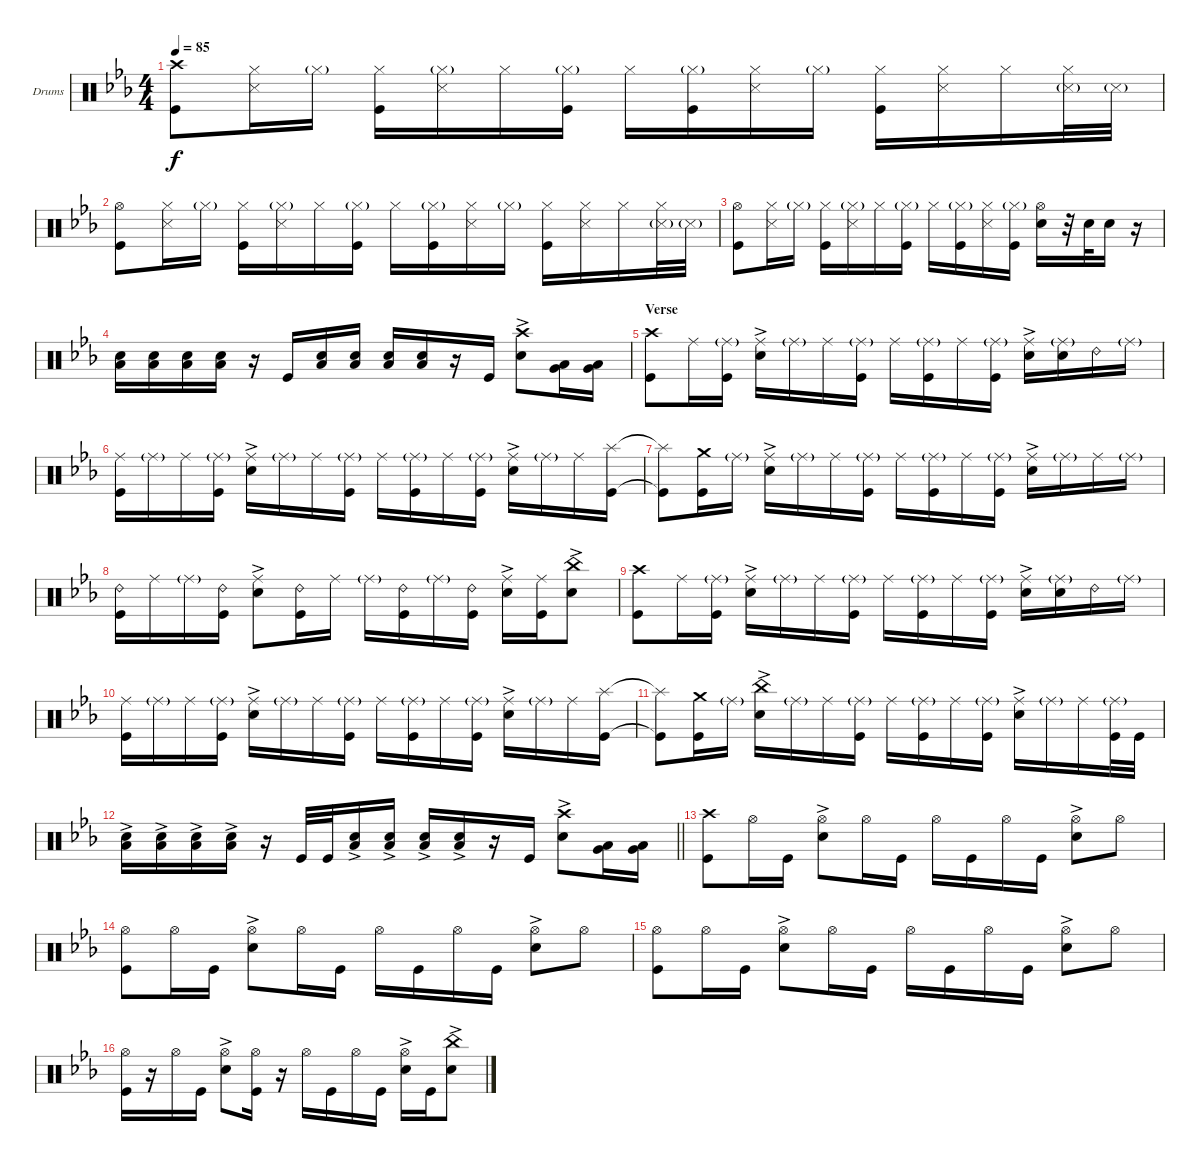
\bracketExtendMode groupsimilarinstruments
\firstSystemTrackNameOrientation horizontal
\otherSystemsTrackNameOrientation horizontal
\track ("Drumkit" "Drums") {instrument percussion}
\staff {score}
\articulation defaults
\ts (4 4)
\tempo 85
\clef neutral
\ks cminor
("Kick (hit)" "Crash high (hit)").8{dy f} ("Snare (side stick) 3" "Hi-Hat (closed)").16 "Hi-Hat (closed)"{g}.16 ("Kick (hit)" "Hi-Hat (closed)").16 ("Snare (side stick) 3" "Hi-Hat (closed)"{g}).16 "Hi-Hat (closed)".16 ("Kick (hit)" "Hi-Hat (closed)"{g}).16 "Hi-Hat (closed)".16 ("Kick (hit)" "Hi-Hat (closed)"{g}).16 ("Snare (side stick) 3" "Hi-Hat (closed)").16 "Hi-Hat (closed)"{g}.16 ("Kick (hit)" "Hi-Hat (closed)").16 ("Snare (side stick) 3" "Hi-Hat (closed)").16 "Hi-Hat (closed)".16 ("Hi-Hat (closed)" "Snare (side stick) 3"{g}).32 "Snare (side stick) 3"{g}.32 |
("Kick (hit)" "Hi-Hat (open)").8 ("Snare (side stick) 3" "Hi-Hat (closed)").16 "Hi-Hat (closed)"{g}.16 ("Kick (hit)" "Hi-Hat (closed)").16 ("Snare (side stick) 3" "Hi-Hat (closed)"{g}).16 "Hi-Hat (closed)".16 ("Kick (hit)" "Hi-Hat (closed)"{g}).16 "Hi-Hat (closed)".16 ("Kick (hit)" "Hi-Hat (closed)"{g}).16 ("Snare (side stick) 3" "Hi-Hat (closed)").16 "Hi-Hat (closed)"{g}.16 ("Kick (hit)" "Hi-Hat (closed)").16 ("Snare (side stick) 3" "Hi-Hat (closed)").16 "Hi-Hat (closed)".16 ("Hi-Hat (closed)" "Snare (side stick) 3"{g}).32 "Snare (side stick) 3"{g}.32 |
("Kick (hit)" "Hi-Hat (open)").8 ("Snare (side stick) 3" "Hi-Hat (closed)").16 "Hi-Hat (closed)"{g}.16 ("Kick (hit)" "Hi-Hat (closed)").16 ("Snare (side stick) 3" "Hi-Hat (closed)"{g}).16 "Hi-Hat (closed)".16 ("Kick (hit)" "Hi-Hat (closed)"{g}).16 "Hi-Hat (closed)".16 ("Kick (hit)" "Hi-Hat (closed)"{g}).16 ("Snare (side stick) 3" "Hi-Hat (closed)").16 ("Hi-Hat (closed)"{g} "Kick (hit)").16 ("Snare (hit) 2" "Hi-Hat (open)").16 r.32 "Snare (hit) 2".32 "Snare (hit) 2".16 r.16 |
("Snare (hit) 2" "Low Tom (hit)").16 ("Snare (hit) 2" "Low Tom (hit)").16 ("Snare (hit) 2" "Low Tom (hit)").16 ("Snare (hit) 2" "Low Tom (hit)").16 r.16 "Kick (hit)".16 ("Low Tom (hit)" "Snare (hit) 2").16 ("Low Tom (hit)" "Snare (hit) 2").16 ("Low Tom (hit)" "Snare (hit) 2").16 ("Low Tom (hit)" "Snare (hit) 2").16 r.16 "Kick (hit)".16 ("Snare (hit) 2"{ac} "Crash high (hit)").8 ("Low Tom (hit)" "Very Low Tom (hit)").16 ("Very Low Tom (hit)" "Low Tom (hit)").16 |
\section ("" "Verse")
("Kick (hit)" "Crash high (hit)").8 "Ride (middle)".16 ("Kick (hit)" "Ride (middle)"{g}).16 ("Snare (hit) 2"{ac} "Ride (middle)").16 "Ride (middle)"{g}.16 "Ride (middle)".16 ("Kick (hit)" "Ride (middle)"{g}).16 "Ride (middle)".16 ("Kick (hit)" "Ride (middle)"{g}).16 "Ride (middle)".16 ("Kick (hit)" "Ride (middle)"{g}).16 ("Snare (hit) 2"{ac} "Ride (middle)").16 ("Snare (hit) 2" "Ride (middle)"{g}).16 "Ride (bell) 2".16 "Ride (middle)"{g}.16 |
("Kick (hit)" "Ride (middle)").16 "Ride (middle)"{g}.16 "Ride (middle)".16 ("Kick (hit)" "Ride (middle)"{g}).16 ("Snare (hit) 2"{ac} "Ride (middle)").16 "Ride (middle)"{g}.16 "Ride (middle)".16 ("Kick (hit)" "Ride (middle)"{g}).16 "Ride (middle)".16 ("Kick (hit)" "Ride (middle)"{g}).16 "Ride (middle)".16 ("Kick (hit)" "Ride (middle)"{g}).16 ("Snare (hit) 2"{ac} "Ride (middle)").16 "Ride (middle)"{g}.16 "Ride (middle)".16 ("Kick (hit)" "Splash (hit)").16 |
("Kick (hit)"{t} "Splash (hit)"{t}).8 ("Kick (hit)" "Crash medium (hit)").16 "Ride (middle)"{g}.16 ("Snare (hit) 2"{ac} "Ride (middle)").16 "Ride (middle)"{g}.16 "Ride (middle)".16 ("Kick (hit)" "Ride (middle)"{g}).16 "Ride (middle)".16 ("Kick (hit)" "Ride (middle)"{g}).16 "Ride (middle)".16 ("Kick (hit)" "Ride (middle)"{g}).16 ("Snare (hit) 2"{ac} "Ride (middle)").16 "Ride (middle)"{g}.16 "Ride (middle)".16 "Ride (middle)"{g}.16 |
("Kick (hit)" "Ride (bell) 2").16 "Ride (middle)".16 "Ride (middle)"{g}.16 ("Kick (hit)" "Ride (bell) 2").16 ("Snare (hit) 2"{ac} "Ride (middle)").8 ("Kick (hit)" "Ride (bell) 2").16 "Ride (middle)".16 "Ride (middle)"{g}.16 ("Kick (hit)" "Ride (bell) 2").16 "Ride (middle)"{g}.16 ("Kick (hit)" "Ride (bell) 2").16 ("Snare (hit) 2"{ac} "Ride (middle)").16 ("Kick (hit)" "Ride (middle)").16 ("Snare (hit) 2"{ac} "China (hit)").8 |
("Kick (hit)" "Crash high (hit)").8 "Ride (middle)".16 ("Kick (hit)" "Ride (middle)"{g}).16 ("Snare (hit) 2"{ac} "Ride (middle)").16 "Ride (middle)"{g}.16 "Ride (middle)".16 ("Kick (hit)" "Ride (middle)"{g}).16 "Ride (middle)".16 ("Kick (hit)" "Ride (middle)"{g}).16 "Ride (middle)".16 ("Kick (hit)" "Ride (middle)"{g}).16 ("Snare (hit) 2"{ac} "Ride (middle)").16 ("Snare (hit) 2" "Ride (middle)"{g}).16 "Ride (bell) 2".16 "Ride (middle)"{g}.16 |
("Kick (hit)" "Ride (middle)").16 "Ride (middle)"{g}.16 "Ride (middle)".16 ("Kick (hit)" "Ride (middle)"{g}).16 ("Snare (hit) 2"{ac} "Ride (middle)").16 "Ride (middle)"{g}.16 "Ride (middle)".16 ("Kick (hit)" "Ride (middle)"{g}).16 "Ride (middle)".16 ("Kick (hit)" "Ride (middle)"{g}).16 "Ride (middle)".16 ("Kick (hit)" "Ride (middle)"{g}).16 ("Snare (hit) 2"{ac} "Ride (middle)").16 "Ride (middle)"{g}.16 "Ride (middle)".16 ("Kick (hit)" "Splash (hit)").16 |
("Kick (hit)"{t} "Splash (hit)"{t}).8 ("Kick (hit)" "Crash medium (hit)").16 "Ride (middle)"{g}.16 ("Snare (hit) 2"{ac} "China (hit)").16 "Ride (middle)"{g}.16 "Ride (middle)".16 ("Kick (hit)" "Ride (middle)"{g}).16 "Ride (middle)".16 ("Kick (hit)" "Ride (middle)"{g}).16 "Ride (middle)".16 ("Kick (hit)" "Ride (middle)"{g}).16 ("Snare (hit) 2"{ac} "Ride (middle)").16 "Ride (middle)"{g}.16 "Ride (middle)".16 ("Ride (middle)"{g} "Kick (hit)").32 "Kick (hit)".32 |
\barLineRight lightlight
("Snare (hit) 2"{ac} "Low Tom (hit)").16 ("Snare (hit) 2"{ac} "Low Tom (hit)").16 ("Snare (hit) 2"{ac} "Low Tom (hit)").16 ("Snare (hit) 2"{ac} "Low Tom (hit)").16 r.16 "Kick (hit)".32 "Kick (hit)".32 ("Low Tom (hit)" "Snare (hit) 2"{ac}).16 ("Low Tom (hit)" "Snare (hit) 2"{ac}).16 ("Low Tom (hit)" "Snare (hit) 2"{ac}).16 ("Low Tom (hit)" "Snare (hit) 2"{ac}).16 r.16 "Kick (hit)".16 ("Snare (hit) 2"{ac} "Crash high (hit)").8 ("Low Tom (hit)" "Very Low Tom (hit)").16 ("Very Low Tom (hit)" "Low Tom (hit)").16 |
("Kick (hit)" "Crash high (hit)").8 "Hi-Hat (open)".16 "Kick (hit)".16 ("Snare (hit) 2"{ac} "Hi-Hat (open)").8 "Hi-Hat (open)".16 "Kick (hit)".16 "Hi-Hat (open)".16 "Kick (hit)".16 "Hi-Hat (open)".16 "Kick (hit)".16 ("Snare (hit) 2"{ac} "Hi-Hat (open)").8 "Hi-Hat (open)".8 |
("Kick (hit)" "Hi-Hat (open)").8 "Hi-Hat (open)".16 "Kick (hit)".16 ("Snare (hit) 2"{ac} "Hi-Hat (open)").8 "Hi-Hat (open)".16 "Kick (hit)".16 "Hi-Hat (open)".16 "Kick (hit)".16 "Hi-Hat (open)".16 "Kick (hit)".16 ("Snare (hit) 2"{ac} "Hi-Hat (open)").8 "Hi-Hat (open)".8 |
("Kick (hit)" "Hi-Hat (open)").8 "Hi-Hat (open)".16 "Kick (hit)".16 ("Snare (hit) 2"{ac} "Hi-Hat (open)").8 "Hi-Hat (open)".16 "Kick (hit)".16 "Hi-Hat (open)".16 "Kick (hit)".16 "Hi-Hat (open)".16 "Kick (hit)".16 ("Snare (hit) 2"{ac} "Hi-Hat (open)").8 "Hi-Hat (open)".8 |
("Kick (hit)" "Hi-Hat (open)").16 r.16 "Hi-Hat (open)".16 "Kick (hit)".16 ("Snare (hit) 2"{ac} "Hi-Hat (open)").8 ("Kick (hit)" "Hi-Hat (open)").16 r.16 "Hi-Hat (open)".16 "Kick (hit)".16 "Hi-Hat (open)".16 "Kick (hit)".16 ("Snare (hit) 2"{ac} "Hi-Hat (open)").16 "Kick (hit)".16 ("Snare (hit) 2"{ac} "China (hit)").8
